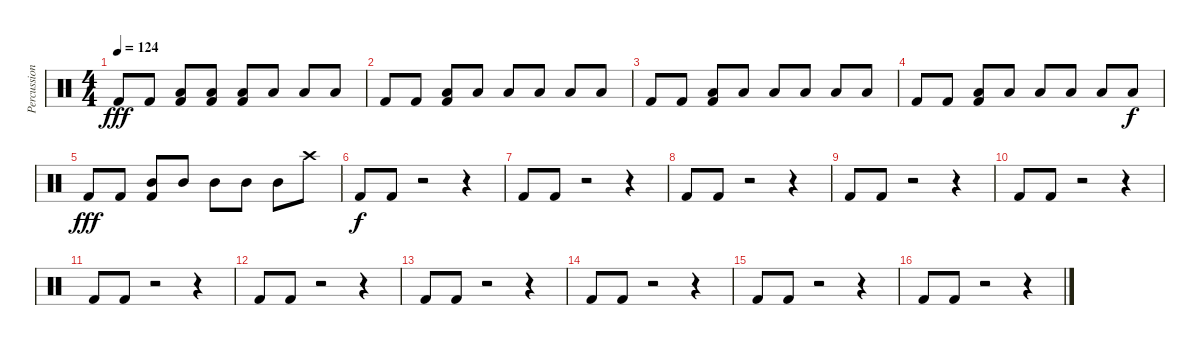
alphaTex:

\track ("Percussion" "Percussion") {instrument percussion}
\staff {score}
\articulation defaults
\ts (4 4)
\tempo 124
\clef neutral
\ks c "Kick (hit) 2".8{dy fff} "Kick (hit) 2".8
("Kick (hit) 2" "Low Floor Tom (hit)").8 ("Kick (hit) 2" "Low Floor Tom (hit)").8 ("Kick (hit) 2" "Low Floor Tom (hit)").8 "Low Floor Tom (hit)".8 "Low Floor Tom (hit)".8 "Low Floor Tom (hit)".8 |
"Kick (hit) 2".8 "Kick (hit) 2".8 ("Kick (hit) 2" "Low Floor Tom (hit)").8 "Low Floor Tom (hit)".8 "Low Floor Tom (hit)".8 "Low Floor Tom (hit)".8 "Low Floor Tom (hit)".8 "Low Floor Tom (hit)".8 |
"Kick (hit) 2".8 "Kick (hit) 2".8 ("Kick (hit) 2" "Low Floor Tom (hit)").8 "Low Floor Tom (hit)".8 "Low Floor Tom (hit)".8 "Low Floor Tom (hit)".8 "Low Floor Tom (hit)".8 "Low Floor Tom (hit)".8 |
"Kick (hit) 2".8 "Kick (hit) 2".8 ("Kick (hit) 2" "Low Tom (hit)").8 "Low Tom (hit)".8 "Low Tom (hit)".8 "Low Tom (hit)".8 "Low Tom (hit)".8 "Low Tom (hit)".8{dy f} |
"Kick (hit) 2".8{dy fff} "Kick (hit) 2".8 ("Kick (hit) 2" "Mid Tom (hit)").8 "Mid Tom (hit)".8 "Mid Tom (hit)".8 "Mid Tom (hit)".8 "Mid Tom (hit)".8 "Crash high (hit)".8 |
"Kick (hit) 2".8{dy f} "Kick (hit) 2".8 r.2 r.4 |
"Kick (hit) 2".8 "Kick (hit) 2".8 r.2 r.4 |
"Kick (hit) 2".8 "Kick (hit) 2".8 r.2 r.4 |
"Kick (hit) 2".8 "Kick (hit) 2".8 r.2 r.4 |
"Kick (hit) 2".8 "Kick (hit) 2".8 r.2 r.4 |
"Kick (hit) 2".8 "Kick (hit) 2".8 r.2 r.4 |
"Kick (hit) 2".8 "Kick (hit) 2".8 r.2 r.4 |
"Kick (hit) 2".8 "Kick (hit) 2".8 r.2 r.4 |
"Kick (hit) 2".8 "Kick (hit) 2".8 r.2 r.4 |
"Kick (hit) 2".8 "Kick (hit) 2".8 r.2 r.4 |
"Kick (hit) 2".8 "Kick (hit) 2".8 r.2 r.4
